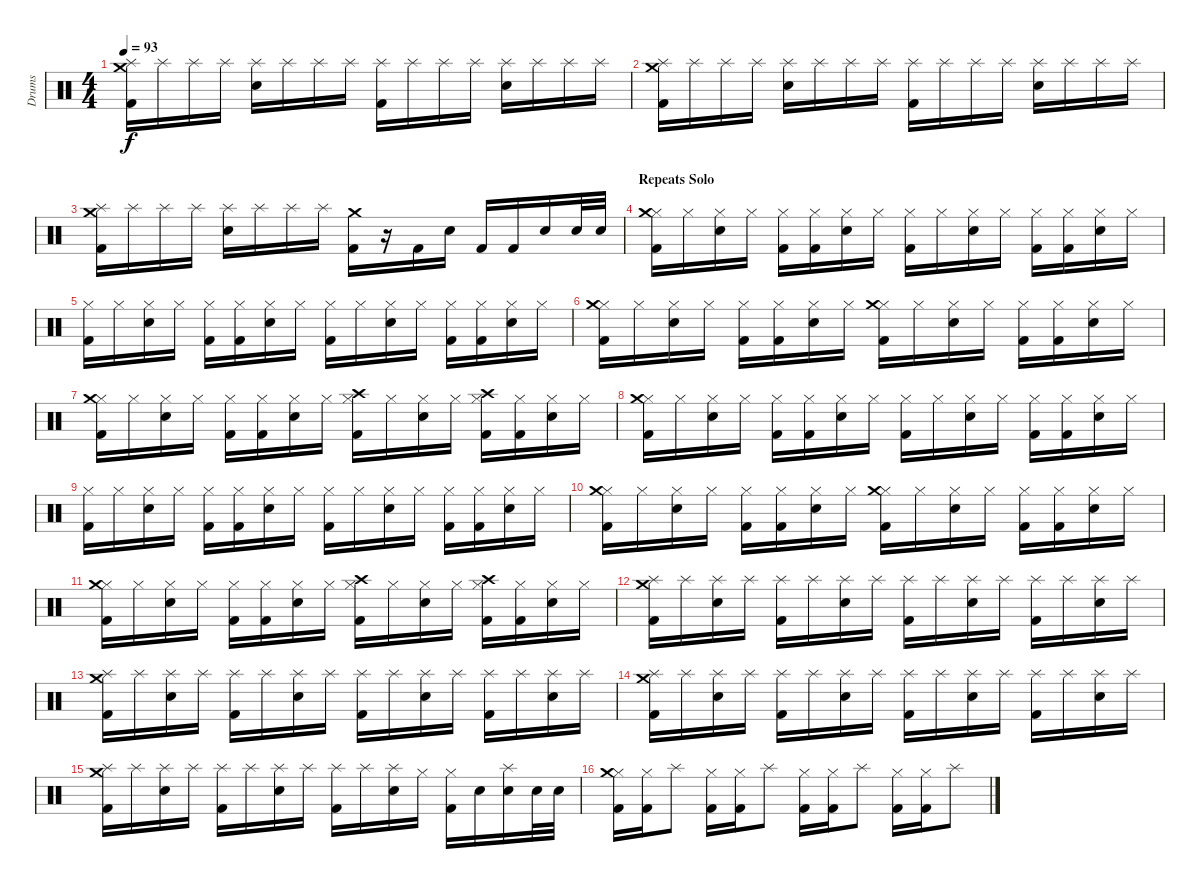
\track ("Drums" "Drums") {instrument percussion}
\staff {score}
\articulation defaults
\ts (4 4)
\tempo 93
\clef neutral
\ks c
("Splash (hit)" "Crash medium (hit)" "Kick (hit) 2").16{dy f} "Splash (hit)".16 "Splash (hit)".16 "Splash (hit)".16 ("Splash (hit)" "Snare (hit) 2").16 "Splash (hit)".16 "Splash (hit)".16 "Splash (hit)".16 ("Splash (hit)" "Kick (hit) 2").16 "Splash (hit)".16 "Splash (hit)".16 "Splash (hit)".16 ("Splash (hit)" "Snare (hit) 2").16 "Splash (hit)".16 "Splash (hit)".16 "Splash (hit)".16 |
("Splash (hit)" "Crash medium (hit)" "Kick (hit) 2").16 "Splash (hit)".16 "Splash (hit)".16 "Splash (hit)".16 ("Splash (hit)" "Snare (hit) 2").16 "Splash (hit)".16 "Splash (hit)".16 "Splash (hit)".16 ("Splash (hit)" "Kick (hit) 2").16 "Splash (hit)".16 "Splash (hit)".16 "Splash (hit)".16 ("Splash (hit)" "Snare (hit) 2").16 "Splash (hit)".16 "Splash (hit)".16 "Splash (hit)".16 |
("Splash (hit)" "Crash medium (hit)" "Kick (hit) 2").16 "Splash (hit)".16 "Splash (hit)".16 "Splash (hit)".16 ("Splash (hit)" "Snare (hit) 2").16 "Splash (hit)".16 "Splash (hit)".16 "Splash (hit)".16 ("Crash medium (hit)" "Kick (hit) 2").16 r.16 "Kick (hit) 2".16 "Snare (hit) 2".16 "Kick (hit) 2".16 "Kick (hit) 2".16 "Snare (hit) 2".16 "Snare (hit) 2".32 "Snare (hit) 2".32 |
\section ("" "Repeats Solo")
("Hi-Hat (closed)" "Crash medium (hit)" "Kick (hit) 2").16 "Hi-Hat (closed)".16 ("Hi-Hat (closed)" "Snare (hit) 2").16 "Hi-Hat (closed)".16 ("Hi-Hat (closed)" "Kick (hit) 2").16 ("Hi-Hat (closed)" "Kick (hit) 2").16 ("Hi-Hat (closed)" "Snare (hit) 2").16 "Hi-Hat (closed)".16 ("Hi-Hat (closed)" "Kick (hit) 2").16 "Hi-Hat (closed)".16 ("Hi-Hat (closed)" "Snare (hit) 2").16 "Hi-Hat (closed)".16 ("Hi-Hat (closed)" "Kick (hit) 2").16 ("Hi-Hat (closed)" "Kick (hit) 2").16 ("Hi-Hat (closed)" "Snare (hit) 2").16 "Hi-Hat (closed)".16 |
("Hi-Hat (closed)" "Kick (hit) 2").16 "Hi-Hat (closed)".16 ("Hi-Hat (closed)" "Snare (hit) 2").16 "Hi-Hat (closed)".16 ("Hi-Hat (closed)" "Kick (hit) 2").16 ("Hi-Hat (closed)" "Kick (hit) 2").16 ("Hi-Hat (closed)" "Snare (hit) 2").16 "Hi-Hat (closed)".16 ("Hi-Hat (closed)" "Kick (hit) 2").16 "Hi-Hat (closed)".16 ("Hi-Hat (closed)" "Snare (hit) 2").16 "Hi-Hat (closed)".16 ("Hi-Hat (closed)" "Kick (hit) 2").16 ("Hi-Hat (closed)" "Kick (hit) 2").16 ("Hi-Hat (closed)" "Snare (hit) 2").16 "Hi-Hat (closed)".16 |
("Hi-Hat (closed)" "Crash medium (hit)" "Kick (hit) 2").16 "Hi-Hat (closed)".16 ("Hi-Hat (closed)" "Snare (hit) 2").16 "Hi-Hat (closed)".16 ("Hi-Hat (closed)" "Kick (hit) 2").16 ("Hi-Hat (closed)" "Kick (hit) 2").16 ("Hi-Hat (closed)" "Snare (hit) 2").16 "Hi-Hat (closed)".16 ("Hi-Hat (closed)" "Crash medium (hit)" "Kick (hit) 2").16 "Hi-Hat (closed)".16 ("Hi-Hat (closed)" "Snare (hit) 2").16 "Hi-Hat (closed)".16 ("Hi-Hat (closed)" "Kick (hit) 2").16 ("Hi-Hat (closed)" "Kick (hit) 2").16 ("Hi-Hat (closed)" "Snare (hit) 2").16 "Hi-Hat (closed)".16 |
("Hi-Hat (closed)" "Crash medium (hit)" "Kick (hit) 2").16 "Hi-Hat (closed)".16 ("Hi-Hat (closed)" "Snare (hit) 2").16 "Hi-Hat (closed)".16 ("Hi-Hat (closed)" "Kick (hit) 2").16 ("Hi-Hat (closed)" "Kick (hit) 2").16 ("Hi-Hat (closed)" "Snare (hit) 2").16 "Hi-Hat (closed)".16 ("Hi-Hat (closed)" "Crash high (hit)" "Kick (hit) 2").16 "Hi-Hat (closed)".16 ("Hi-Hat (closed)" "Snare (hit) 2").16 "Hi-Hat (closed)".16 ("Hi-Hat (closed)" "Crash high (hit)" "Kick (hit) 2").16 ("Hi-Hat (closed)" "Kick (hit) 2").16 ("Hi-Hat (closed)" "Snare (hit) 2").16 "Hi-Hat (closed)".16 |
("Hi-Hat (closed)" "Crash medium (hit)" "Kick (hit) 2").16 "Hi-Hat (closed)".16 ("Hi-Hat (closed)" "Snare (hit) 2").16 "Hi-Hat (closed)".16 ("Hi-Hat (closed)" "Kick (hit) 2").16 ("Hi-Hat (closed)" "Kick (hit) 2").16 ("Hi-Hat (closed)" "Snare (hit) 2").16 "Hi-Hat (closed)".16 ("Hi-Hat (closed)" "Kick (hit) 2").16 "Hi-Hat (closed)".16 ("Hi-Hat (closed)" "Snare (hit) 2").16 "Hi-Hat (closed)".16 ("Hi-Hat (closed)" "Kick (hit) 2").16 ("Hi-Hat (closed)" "Kick (hit) 2").16 ("Hi-Hat (closed)" "Snare (hit) 2").16 "Hi-Hat (closed)".16 |
("Hi-Hat (closed)" "Kick (hit) 2").16 "Hi-Hat (closed)".16 ("Hi-Hat (closed)" "Snare (hit) 2").16 "Hi-Hat (closed)".16 ("Hi-Hat (closed)" "Kick (hit) 2").16 ("Hi-Hat (closed)" "Kick (hit) 2").16 ("Hi-Hat (closed)" "Snare (hit) 2").16 "Hi-Hat (closed)".16 ("Hi-Hat (closed)" "Kick (hit) 2").16 "Hi-Hat (closed)".16 ("Hi-Hat (closed)" "Snare (hit) 2").16 "Hi-Hat (closed)".16 ("Hi-Hat (closed)" "Kick (hit) 2").16 ("Hi-Hat (closed)" "Kick (hit) 2").16 ("Hi-Hat (closed)" "Snare (hit) 2").16 "Hi-Hat (closed)".16 |
("Hi-Hat (closed)" "Crash medium (hit)" "Kick (hit) 2").16 "Hi-Hat (closed)".16 ("Hi-Hat (closed)" "Snare (hit) 2").16 "Hi-Hat (closed)".16 ("Hi-Hat (closed)" "Kick (hit) 2").16 ("Hi-Hat (closed)" "Kick (hit) 2").16 ("Hi-Hat (closed)" "Snare (hit) 2").16 "Hi-Hat (closed)".16 ("Hi-Hat (closed)" "Crash medium (hit)" "Kick (hit) 2").16 "Hi-Hat (closed)".16 ("Hi-Hat (closed)" "Snare (hit) 2").16 "Hi-Hat (closed)".16 ("Hi-Hat (closed)" "Kick (hit) 2").16 ("Hi-Hat (closed)" "Kick (hit) 2").16 ("Hi-Hat (closed)" "Snare (hit) 2").16 "Hi-Hat (closed)".16 |
("Hi-Hat (closed)" "Crash medium (hit)" "Kick (hit) 2").16 "Hi-Hat (closed)".16 ("Hi-Hat (closed)" "Snare (hit) 2").16 "Hi-Hat (closed)".16 ("Hi-Hat (closed)" "Kick (hit) 2").16 ("Hi-Hat (closed)" "Kick (hit) 2").16 ("Hi-Hat (closed)" "Snare (hit) 2").16 "Hi-Hat (closed)".16 ("Hi-Hat (closed)" "Crash high (hit)" "Kick (hit) 2").16 "Hi-Hat (closed)".16 ("Hi-Hat (closed)" "Snare (hit) 2").16 "Hi-Hat (closed)".16 ("Hi-Hat (closed)" "Crash high (hit)" "Kick (hit) 2").16 ("Hi-Hat (closed)" "Kick (hit) 2").16 ("Hi-Hat (closed)" "Snare (hit) 2").16 "Hi-Hat (closed)".16 |
("Splash (hit)" "Crash medium (hit)" "Kick (hit) 2").16 "Splash (hit)".16 ("Splash (hit)" "Snare (hit) 2").16 "Splash (hit)".16 ("Splash (hit)" "Kick (hit) 2").16 "Splash (hit)".16 ("Splash (hit)" "Snare (hit) 2").16 "Splash (hit)".16 ("Splash (hit)" "Kick (hit) 2").16 "Splash (hit)".16 ("Splash (hit)" "Snare (hit) 2").16 "Splash (hit)".16 ("Splash (hit)" "Kick (hit) 2").16 "Splash (hit)".16 ("Splash (hit)" "Snare (hit) 2").16 "Splash (hit)".16 |
("Splash (hit)" "Crash medium (hit)" "Kick (hit) 2").16 "Splash (hit)".16 ("Splash (hit)" "Snare (hit) 2").16 "Splash (hit)".16 ("Splash (hit)" "Kick (hit) 2").16 "Splash (hit)".16 ("Splash (hit)" "Snare (hit) 2").16 "Splash (hit)".16 ("Splash (hit)" "Kick (hit) 2").16 "Splash (hit)".16 ("Splash (hit)" "Snare (hit) 2").16 "Splash (hit)".16 ("Splash (hit)" "Kick (hit) 2").16 "Splash (hit)".16 ("Splash (hit)" "Snare (hit) 2").16 "Splash (hit)".16 |
("Splash (hit)" "Crash medium (hit)" "Kick (hit) 2").16 "Splash (hit)".16 ("Splash (hit)" "Snare (hit) 2").16 "Splash (hit)".16 ("Splash (hit)" "Kick (hit) 2").16 "Splash (hit)".16 ("Splash (hit)" "Snare (hit) 2").16 "Splash (hit)".16 ("Splash (hit)" "Kick (hit) 2").16 "Splash (hit)".16 ("Splash (hit)" "Snare (hit) 2").16 "Splash (hit)".16 ("Splash (hit)" "Kick (hit) 2").16 "Splash (hit)".16 ("Splash (hit)" "Snare (hit) 2").16 "Splash (hit)".16 |
("Splash (hit)" "Crash medium (hit)" "Kick (hit) 2").16 "Splash (hit)".16 ("Splash (hit)" "Snare (hit) 2").16 "Splash (hit)".16 ("Splash (hit)" "Kick (hit) 2").16 "Splash (hit)".16 ("Splash (hit)" "Snare (hit) 2").16 "Splash (hit)".16 ("Splash (hit)" "Kick (hit) 2").16 "Splash (hit)".16 ("Splash (hit)" "Snare (hit) 2").16 "Hi-Hat (closed)".16 ("Hi-Hat (closed)" "Kick (hit) 2").16 "Snare (hit) 2".16 ("Splash (hit)" "Snare (hit) 2").16 "Snare (hit) 2".32 "Snare (hit) 2".32 |
("Hi-Hat (closed)" "Crash medium (hit)" "Kick (hit) 2").16 ("Hi-Hat (closed)" "Kick (hit) 2").16 "Splash (hit)".8 ("Hi-Hat (closed)" "Kick (hit) 2").16 ("Hi-Hat (closed)" "Kick (hit) 2").16 "Splash (hit)".8 ("Hi-Hat (closed)" "Kick (hit) 2").16 ("Hi-Hat (closed)" "Kick (hit) 2").16 "Splash (hit)".8 ("Hi-Hat (closed)" "Kick (hit) 2").16 ("Hi-Hat (closed)" "Kick (hit) 2").16 "Splash (hit)".8
